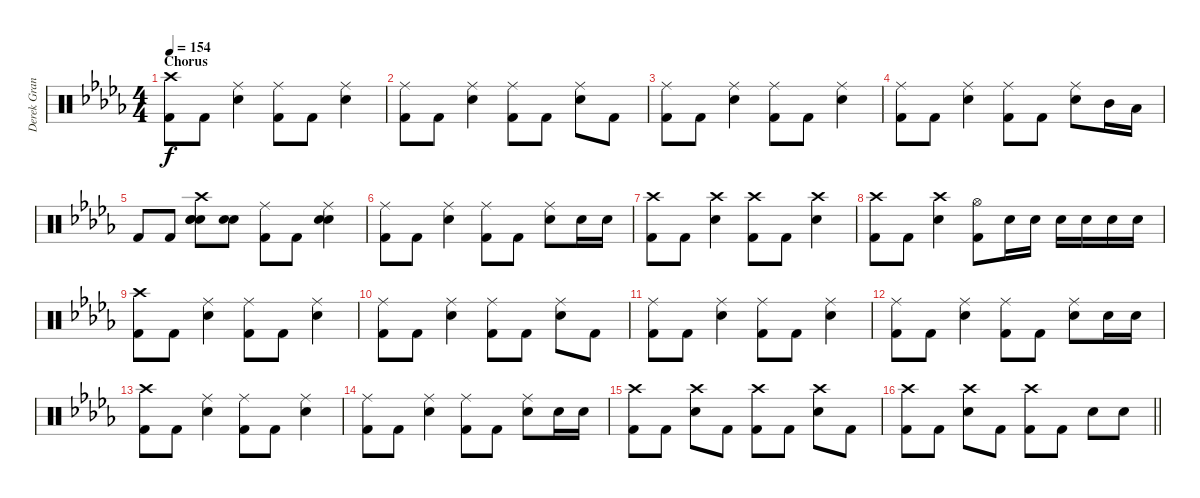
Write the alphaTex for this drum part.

\track ("Derek Grant - Drums" "Derek Gran") {instrument percussion}
\staff {score}
\articulation defaults
\ts (4 4)
\section ("" "Chorus")
\tempo 154
\clef neutral
\ks db
("Crash high (hit)" "Kick (hit) 2").8{dy f} "Kick (hit) 2".8 ("Ride (middle)" "Snare (hit) 2").4 ("Ride (middle)" "Kick (hit) 2").8 "Kick (hit) 2".8 ("Ride (middle)" "Snare (hit) 2").4 |
("Ride (middle)" "Kick (hit) 2").8 "Kick (hit) 2".8 ("Ride (middle)" "Snare (hit) 2").4 ("Ride (middle)" "Kick (hit) 2").8 "Kick (hit) 2".8 ("Ride (middle)" "Snare (hit) 2").8 "Kick (hit) 2".8 |
("Ride (middle)" "Kick (hit) 2").8 "Kick (hit) 2".8 ("Ride (middle)" "Snare (hit) 2").4 ("Ride (middle)" "Kick (hit) 2").8 "Kick (hit) 2".8 ("Ride (middle)" "Snare (hit) 2").4 |
("Ride (middle)" "Kick (hit) 2").8 "Kick (hit) 2".8 ("Ride (middle)" "Snare (hit) 2").4 ("Ride (middle)" "Kick (hit) 2").8 "Kick (hit) 2".8 ("Ride (middle)" "Snare (hit) 2").8 "Mid Tom (hit)".16 "Low Tom (hit)".16 |
"Kick (hit) 2".8 "Kick (hit) 2".8 ("Snare (hit) 2" "Crash high (hit)" "Hand Clap (hit)" "Hand Clap (hit)").8 ("Snare (hit) 2" "Hand Clap (hit)").8 ("Ride (middle)" "Kick (hit) 2").8 "Kick (hit) 2".8 ("Ride (middle)" "Snare (hit) 2" "Hand Clap (hit)").4 |
("Ride (middle)" "Kick (hit) 2").8 "Kick (hit) 2".8 ("Ride (middle)" "Snare (hit) 2").4 ("Ride (middle)" "Kick (hit) 2").8 "Kick (hit) 2".8 ("Ride (middle)" "Snare (hit) 2").8 "Snare (hit) 2".16 "Snare (hit) 2".16 |
("Kick (hit) 2" "Crash high (hit)").8 "Kick (hit) 2".8 ("Snare (hit) 2" "Crash high (hit)").4 ("Kick (hit) 2" "Crash high (hit)").8 "Kick (hit) 2".8 ("Snare (hit) 2" "Crash high (hit)").4 |
("Kick (hit) 2" "Crash high (hit)").8 "Kick (hit) 2".8 ("Snare (hit) 2" "Crash high (hit)").4 ("Kick (hit) 2" "Hi-Hat (open)").8 "Snare (hit) 2".16 "Snare (hit) 2".16 "Snare (hit) 2".16 "Snare (hit) 2".16 "Snare (hit) 2".16 "Snare (hit) 2".16 |
("Crash high (hit)" "Kick (hit) 2").8 "Kick (hit) 2".8 ("Ride (middle)" "Snare (hit) 2").4 ("Ride (middle)" "Kick (hit) 2").8 "Kick (hit) 2".8 ("Ride (middle)" "Snare (hit) 2").4 |
("Ride (middle)" "Kick (hit) 2").8 "Kick (hit) 2".8 ("Ride (middle)" "Snare (hit) 2").4 ("Ride (middle)" "Kick (hit) 2").8 "Kick (hit) 2".8 ("Ride (middle)" "Snare (hit) 2").8 "Kick (hit) 2".8 |
("Ride (middle)" "Kick (hit) 2").8 "Kick (hit) 2".8 ("Ride (middle)" "Snare (hit) 2").4 ("Ride (middle)" "Kick (hit) 2").8 "Kick (hit) 2".8 ("Ride (middle)" "Snare (hit) 2").4 |
("Ride (middle)" "Kick (hit) 2").8 "Kick (hit) 2".8 ("Ride (middle)" "Snare (hit) 2").4 ("Ride (middle)" "Kick (hit) 2").8 "Kick (hit) 2".8 ("Ride (middle)" "Snare (hit) 2").8 "Snare (hit) 2".16 "Snare (hit) 2".16 |
("Kick (hit) 2" "Crash high (hit)").8 "Kick (hit) 2".8 ("Snare (hit) 2" "Ride (middle)").4 ("Ride (middle)" "Kick (hit) 2").8 "Kick (hit) 2".8 ("Ride (middle)" "Snare (hit) 2").4 |
("Ride (middle)" "Kick (hit) 2").8 "Kick (hit) 2".8 ("Ride (middle)" "Snare (hit) 2").4 ("Ride (middle)" "Kick (hit) 2").8 "Kick (hit) 2".8 ("Ride (middle)" "Snare (hit) 2").8 "Snare (hit) 2".16 "Snare (hit) 2".16 |
("Kick (hit) 2" "Crash high (hit)").8 "Kick (hit) 2".8 ("Snare (hit) 2" "Crash high (hit)").8 "Kick (hit) 2".8 ("Kick (hit) 2" "Crash high (hit)").8 "Kick (hit) 2".8 ("Snare (hit) 2" "Crash high (hit)").8 "Kick (hit) 2".8 |
\barLineRight lightlight
("Kick (hit) 2" "Crash high (hit)").8 "Kick (hit) 2".8 ("Snare (hit) 2" "Crash high (hit)").8 "Kick (hit) 2".8 ("Kick (hit) 2" "Crash high (hit)").8 "Kick (hit) 2".8 "Snare (hit) 2".8 "Snare (hit) 2".8
